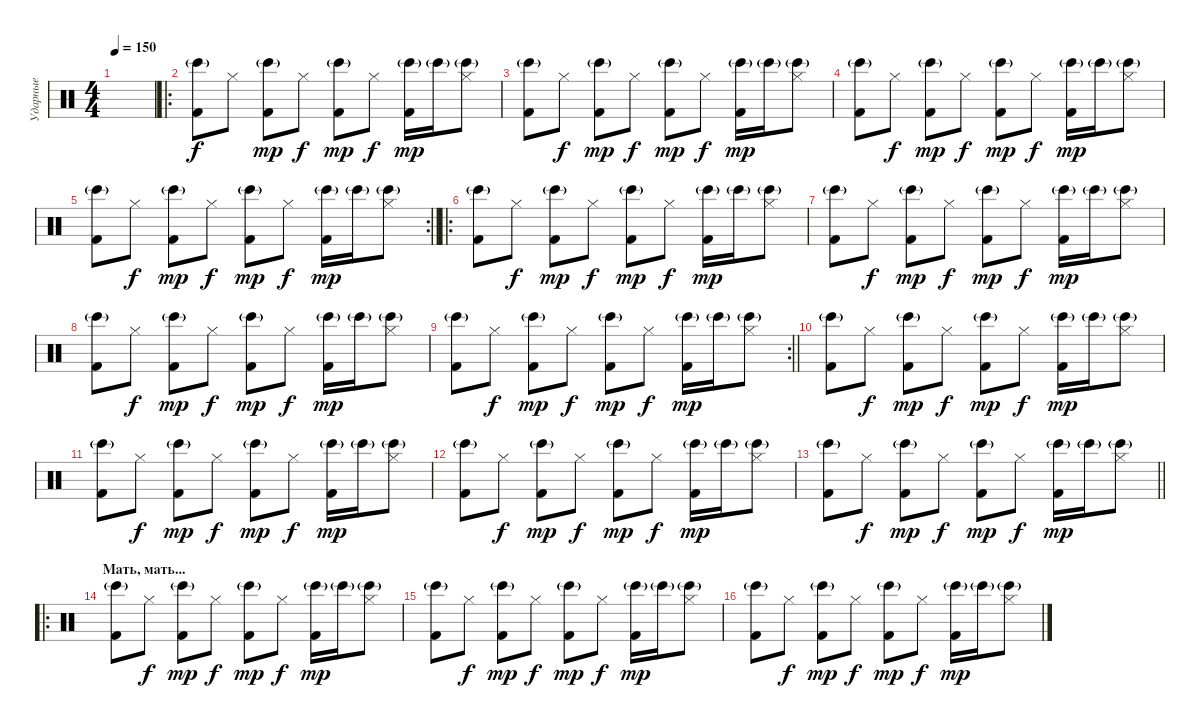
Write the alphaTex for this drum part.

\track ("Ударные" "Ударные") {instrument percussion}
\staff {score}
\articulation defaults
\ts (4 4)
\tempo 150
\clef neutral
\ks c
|
\ro
("Kick (hit) 2" "Bongo High (hit)"{g}).8 "Hi-Hat (closed)".8{dy f} ("Kick (hit) 2" "Bongo High (hit)"{g}).8{dy mp} "Hi-Hat (closed)".8{dy f} ("Kick (hit) 2" "Bongo High (hit)"{g}).8{dy mp} "Hi-Hat (closed)".8{dy f} ("Kick (hit) 2" "Bongo High (hit)"{g}).16{dy mp} "Bongo High (hit)"{g}.16 ("Hi-Hat (closed)" "Bongo High (hit)"{g}).8 |
("Kick (hit) 2" "Bongo High (hit)"{g}).8 "Hi-Hat (closed)".8{dy f} ("Kick (hit) 2" "Bongo High (hit)"{g}).8{dy mp} "Hi-Hat (closed)".8{dy f} ("Kick (hit) 2" "Bongo High (hit)"{g}).8{dy mp} "Hi-Hat (closed)".8{dy f} ("Kick (hit) 2" "Bongo High (hit)"{g}).16{dy mp} "Bongo High (hit)"{g}.16 ("Hi-Hat (closed)" "Bongo High (hit)"{g}).8 |
("Kick (hit) 2" "Bongo High (hit)"{g}).8 "Hi-Hat (closed)".8{dy f} ("Kick (hit) 2" "Bongo High (hit)"{g}).8{dy mp} "Hi-Hat (closed)".8{dy f} ("Kick (hit) 2" "Bongo High (hit)"{g}).8{dy mp} "Hi-Hat (closed)".8{dy f} ("Kick (hit) 2" "Bongo High (hit)"{g}).16{dy mp} "Bongo High (hit)"{g}.16 ("Hi-Hat (closed)" "Bongo High (hit)"{g}).8 |
\rc 2
\barLineRight lightlight
("Kick (hit) 2" "Bongo High (hit)"{g}).8 "Hi-Hat (closed)".8{dy f} ("Kick (hit) 2" "Bongo High (hit)"{g}).8{dy mp} "Hi-Hat (closed)".8{dy f} ("Kick (hit) 2" "Bongo High (hit)"{g}).8{dy mp} "Hi-Hat (closed)".8{dy f} ("Kick (hit) 2" "Bongo High (hit)"{g}).16{dy mp} "Bongo High (hit)"{g}.16 ("Hi-Hat (closed)" "Bongo High (hit)"{g}).8 |
\ro
("Kick (hit) 2" "Bongo High (hit)"{g}).8 "Hi-Hat (closed)".8{dy f} ("Kick (hit) 2" "Bongo High (hit)"{g}).8{dy mp} "Hi-Hat (closed)".8{dy f} ("Kick (hit) 2" "Bongo High (hit)"{g}).8{dy mp} "Hi-Hat (closed)".8{dy f} ("Kick (hit) 2" "Bongo High (hit)"{g}).16{dy mp} "Bongo High (hit)"{g}.16 ("Hi-Hat (closed)" "Bongo High (hit)"{g}).8 |
("Kick (hit) 2" "Bongo High (hit)"{g}).8 "Hi-Hat (closed)".8{dy f} ("Kick (hit) 2" "Bongo High (hit)"{g}).8{dy mp} "Hi-Hat (closed)".8{dy f} ("Kick (hit) 2" "Bongo High (hit)"{g}).8{dy mp} "Hi-Hat (closed)".8{dy f} ("Kick (hit) 2" "Bongo High (hit)"{g}).16{dy mp} "Bongo High (hit)"{g}.16 ("Hi-Hat (closed)" "Bongo High (hit)"{g}).8 |
("Kick (hit) 2" "Bongo High (hit)"{g}).8 "Hi-Hat (closed)".8{dy f} ("Kick (hit) 2" "Bongo High (hit)"{g}).8{dy mp} "Hi-Hat (closed)".8{dy f} ("Kick (hit) 2" "Bongo High (hit)"{g}).8{dy mp} "Hi-Hat (closed)".8{dy f} ("Kick (hit) 2" "Bongo High (hit)"{g}).16{dy mp} "Bongo High (hit)"{g}.16 ("Hi-Hat (closed)" "Bongo High (hit)"{g}).8 |
\rc 2
\barLineRight lightlight
("Kick (hit) 2" "Bongo High (hit)"{g}).8 "Hi-Hat (closed)".8{dy f} ("Kick (hit) 2" "Bongo High (hit)"{g}).8{dy mp} "Hi-Hat (closed)".8{dy f} ("Kick (hit) 2" "Bongo High (hit)"{g}).8{dy mp} "Hi-Hat (closed)".8{dy f} ("Kick (hit) 2" "Bongo High (hit)"{g}).16{dy mp} "Bongo High (hit)"{g}.16 ("Hi-Hat (closed)" "Bongo High (hit)"{g}).8 |
("Kick (hit) 2" "Bongo High (hit)"{g}).8 "Hi-Hat (closed)".8{dy f} ("Kick (hit) 2" "Bongo High (hit)"{g}).8{dy mp} "Hi-Hat (closed)".8{dy f} ("Kick (hit) 2" "Bongo High (hit)"{g}).8{dy mp} "Hi-Hat (closed)".8{dy f} ("Kick (hit) 2" "Bongo High (hit)"{g}).16{dy mp} "Bongo High (hit)"{g}.16 ("Hi-Hat (closed)" "Bongo High (hit)"{g}).8 |
("Kick (hit) 2" "Bongo High (hit)"{g}).8 "Hi-Hat (closed)".8{dy f} ("Kick (hit) 2" "Bongo High (hit)"{g}).8{dy mp} "Hi-Hat (closed)".8{dy f} ("Kick (hit) 2" "Bongo High (hit)"{g}).8{dy mp} "Hi-Hat (closed)".8{dy f} ("Kick (hit) 2" "Bongo High (hit)"{g}).16{dy mp} "Bongo High (hit)"{g}.16 ("Hi-Hat (closed)" "Bongo High (hit)"{g}).8 |
("Kick (hit) 2" "Bongo High (hit)"{g}).8 "Hi-Hat (closed)".8{dy f} ("Kick (hit) 2" "Bongo High (hit)"{g}).8{dy mp} "Hi-Hat (closed)".8{dy f} ("Kick (hit) 2" "Bongo High (hit)"{g}).8{dy mp} "Hi-Hat (closed)".8{dy f} ("Kick (hit) 2" "Bongo High (hit)"{g}).16{dy mp} "Bongo High (hit)"{g}.16 ("Hi-Hat (closed)" "Bongo High (hit)"{g}).8 |
\barLineRight lightlight
("Kick (hit) 2" "Bongo High (hit)"{g}).8 "Hi-Hat (closed)".8{dy f} ("Kick (hit) 2" "Bongo High (hit)"{g}).8{dy mp} "Hi-Hat (closed)".8{dy f} ("Kick (hit) 2" "Bongo High (hit)"{g}).8{dy mp} "Hi-Hat (closed)".8{dy f} ("Kick (hit) 2" "Bongo High (hit)"{g}).16{dy mp} "Bongo High (hit)"{g}.16 ("Hi-Hat (closed)" "Bongo High (hit)"{g}).8 |
\ro
\section ("" "Мать, мать...")
("Kick (hit) 2" "Bongo High (hit)"{g}).8 "Hi-Hat (closed)".8{dy f} ("Kick (hit) 2" "Bongo High (hit)"{g}).8{dy mp} "Hi-Hat (closed)".8{dy f} ("Kick (hit) 2" "Bongo High (hit)"{g}).8{dy mp} "Hi-Hat (closed)".8{dy f} ("Kick (hit) 2" "Bongo High (hit)"{g}).16{dy mp} "Bongo High (hit)"{g}.16 ("Hi-Hat (closed)" "Bongo High (hit)"{g}).8 |
("Kick (hit) 2" "Bongo High (hit)"{g}).8 "Hi-Hat (closed)".8{dy f} ("Kick (hit) 2" "Bongo High (hit)"{g}).8{dy mp} "Hi-Hat (closed)".8{dy f} ("Kick (hit) 2" "Bongo High (hit)"{g}).8{dy mp} "Hi-Hat (closed)".8{dy f} ("Kick (hit) 2" "Bongo High (hit)"{g}).16{dy mp} "Bongo High (hit)"{g}.16 ("Hi-Hat (closed)" "Bongo High (hit)"{g}).8 |
("Kick (hit) 2" "Bongo High (hit)"{g}).8 "Hi-Hat (closed)".8{dy f} ("Kick (hit) 2" "Bongo High (hit)"{g}).8{dy mp} "Hi-Hat (closed)".8{dy f} ("Kick (hit) 2" "Bongo High (hit)"{g}).8{dy mp} "Hi-Hat (closed)".8{dy f} ("Kick (hit) 2" "Bongo High (hit)"{g}).16{dy mp} "Bongo High (hit)"{g}.16 ("Hi-Hat (closed)" "Bongo High (hit)"{g}).8
